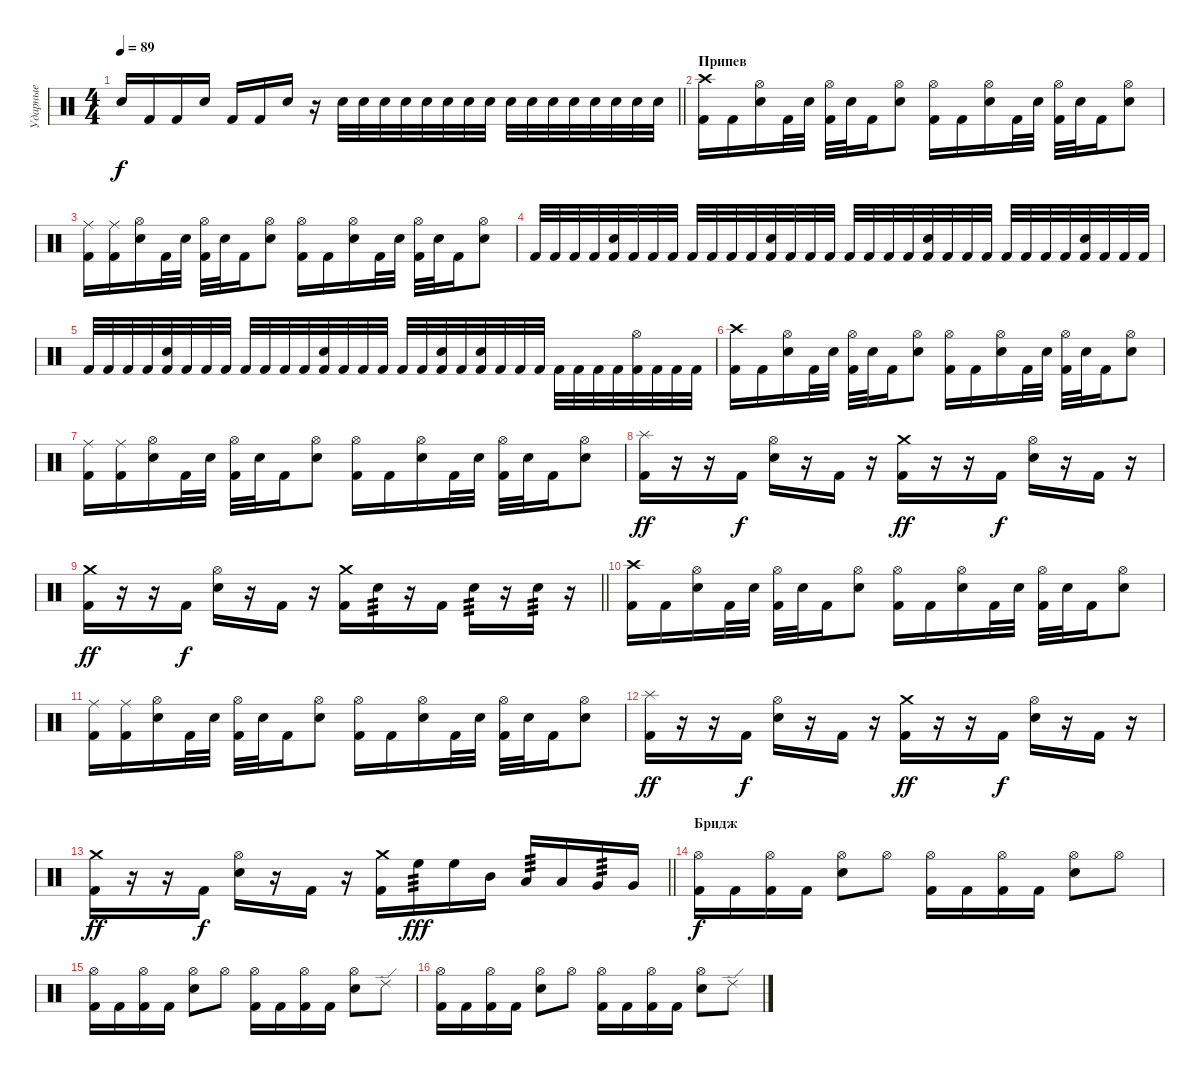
\track ("Ударные" "Ударные") {instrument percussion}
\staff {score}
\articulation defaults
\ts (4 4)
\tempo 89
\clef neutral
\barLineRight lightlight
\ks c "Electric Snare (hit)".16{dy f} "Kick (hit) 2".16 "Kick (hit) 2".16 "Electric Snare (hit)".16 "Kick (hit) 2".16 "Kick (hit) 2".16 "Electric Snare (hit)".16
r.16{volume 0} "Electric Snare (hit)".32{volume 16} "Electric Snare (hit)".32 "Electric Snare (hit)".32 "Electric Snare (hit)".32 "Electric Snare (hit)".32 "Electric Snare (hit)".32 "Electric Snare (hit)".32 "Electric Snare (hit)".32 "Electric Snare (hit)".32 "Electric Snare (hit)".32 "Electric Snare (hit)".32 "Electric Snare (hit)".32 "Electric Snare (hit)".32 "Electric Snare (hit)".32 "Electric Snare (hit)".32 "Electric Snare (hit)".32 |
\section ("" "Припев")
("Kick (hit) 2" "Crash high (hit)").16 "Kick (hit) 2".16 ("Electric Snare (hit)" "Hi-Hat (open)").16 "Kick (hit) 2".32 "Electric Snare (hit)".32 ("Kick (hit) 2" "Hi-Hat (open)").32 "Electric Snare (hit)".32 "Kick (hit) 2".16 ("Electric Snare (hit)" "Hi-Hat (open)").8 ("Kick (hit) 2" "Hi-Hat (open)").16 "Kick (hit) 2".16 ("Electric Snare (hit)" "Hi-Hat (open)").16 "Kick (hit) 2".32 "Electric Snare (hit)".32 ("Kick (hit) 2" "Hi-Hat (open)").32 "Electric Snare (hit)".32 "Kick (hit) 2".16 ("Electric Snare (hit)" "Hi-Hat (open)").8 |
("Kick (hit) 2" "Ride (middle)").16 ("Kick (hit) 2" "Ride (middle)").16 ("Electric Snare (hit)" "Hi-Hat (open)").16 "Kick (hit) 2".32 "Electric Snare (hit)".32 ("Kick (hit) 2" "Hi-Hat (open)").32 "Electric Snare (hit)".32 "Kick (hit) 2".16 ("Electric Snare (hit)" "Hi-Hat (open)").8 ("Kick (hit) 2" "Hi-Hat (open)").16 "Kick (hit) 2".16 ("Electric Snare (hit)" "Hi-Hat (open)").16 "Kick (hit) 2".32 "Electric Snare (hit)".32 ("Kick (hit) 2" "Hi-Hat (open)").32 "Electric Snare (hit)".32 "Kick (hit) 2".16 ("Electric Snare (hit)" "Hi-Hat (open)").8 |
"Kick (hit) 2".32 "Kick (hit) 2".32 "Kick (hit) 2".32 "Kick (hit) 2".32 ("Kick (hit) 2" "Electric Snare (hit)").32 "Kick (hit) 2".32 "Kick (hit) 2".32 "Kick (hit) 2".32 "Kick (hit) 2".32 "Kick (hit) 2".32 "Kick (hit) 2".32 "Kick (hit) 2".32 ("Kick (hit) 2" "Electric Snare (hit)").32 "Kick (hit) 2".32 "Kick (hit) 2".32 "Kick (hit) 2".32 "Kick (hit) 2".32 "Kick (hit) 2".32 "Kick (hit) 2".32 "Kick (hit) 2".32 ("Kick (hit) 2" "Electric Snare (hit)").32 "Kick (hit) 2".32 "Kick (hit) 2".32 "Kick (hit) 2".32 "Kick (hit) 2".32 "Kick (hit) 2".32 "Kick (hit) 2".32 "Kick (hit) 2".32 ("Kick (hit) 2" "Electric Snare (hit)").32 "Kick (hit) 2".32 "Kick (hit) 2".32 "Kick (hit) 2".32 |
"Kick (hit) 2".32 "Kick (hit) 2".32 "Kick (hit) 2".32 "Kick (hit) 2".32 ("Kick (hit) 2" "Electric Snare (hit)").32 "Kick (hit) 2".32 "Kick (hit) 2".32 "Kick (hit) 2".32 "Kick (hit) 2".32 "Kick (hit) 2".32 "Kick (hit) 2".32 "Kick (hit) 2".32 ("Kick (hit) 2" "Electric Snare (hit)").32 "Kick (hit) 2".32 "Kick (hit) 2".32 "Kick (hit) 2".32 "Kick (hit) 2".32 "Kick (hit) 2".32 ("Kick (hit) 2" "Electric Snare (hit)").32 "Kick (hit) 2".32 ("Kick (hit) 2" "Electric Snare (hit)").32 "Kick (hit) 2".32 "Kick (hit) 2".32 "Kick (hit) 2".32 "Kick (hit) 2".32 "Kick (hit) 2".32 "Kick (hit) 2".32 "Kick (hit) 2".32 ("Kick (hit) 2" "Hi-Hat (open)").32 "Kick (hit) 2".32 "Kick (hit) 2".32 "Kick (hit) 2".32 |
("Kick (hit) 2" "Crash high (hit)").16 "Kick (hit) 2".16 ("Electric Snare (hit)" "Hi-Hat (open)").16 "Kick (hit) 2".32 "Electric Snare (hit)".32 ("Kick (hit) 2" "Hi-Hat (open)").32 "Electric Snare (hit)".32 "Kick (hit) 2".16 ("Electric Snare (hit)" "Hi-Hat (open)").8 ("Kick (hit) 2" "Hi-Hat (open)").16 "Kick (hit) 2".16 ("Electric Snare (hit)" "Hi-Hat (open)").16 "Kick (hit) 2".32 "Electric Snare (hit)".32 ("Kick (hit) 2" "Hi-Hat (open)").32 "Electric Snare (hit)".32 "Kick (hit) 2".16 ("Electric Snare (hit)" "Hi-Hat (open)").8 |
("Kick (hit) 2" "Ride (middle)").16 ("Kick (hit) 2" "Ride (middle)").16 ("Electric Snare (hit)" "Hi-Hat (open)").16 "Kick (hit) 2".32 "Electric Snare (hit)".32 ("Kick (hit) 2" "Hi-Hat (open)").32 "Electric Snare (hit)".32 "Kick (hit) 2".16 ("Electric Snare (hit)" "Hi-Hat (open)").8 ("Kick (hit) 2" "Hi-Hat (open)").16 "Kick (hit) 2".16 ("Electric Snare (hit)" "Hi-Hat (open)").16 "Kick (hit) 2".32 "Electric Snare (hit)".32 ("Kick (hit) 2" "Hi-Hat (open)").32 "Electric Snare (hit)".32 "Kick (hit) 2".16 ("Electric Snare (hit)" "Hi-Hat (open)").8 |
("Kick (hit) 2" "Splash (hit)").16{dy ff} r.16 r.16 "Kick (hit) 2".16{dy f} ("Electric Snare (hit)" "Hi-Hat (open)").16 r.16 "Kick (hit) 2".16 r.16 ("Kick (hit) 2" "Crash medium (hit)").16{dy ff} r.16 r.16 "Kick (hit) 2".16{dy f} ("Electric Snare (hit)" "Hi-Hat (open)").16 r.16 "Kick (hit) 2".16 r.16 |
\barLineRight lightlight
("Kick (hit) 2" "Crash medium (hit)").16{dy ff} r.16 r.16 "Kick (hit) 2".16{dy f} ("Electric Snare (hit)" "Hi-Hat (open)").16 r.16 "Kick (hit) 2".16 r.16 ("Kick (hit) 2" "Crash medium (hit)").16 "Electric Snare (hit)".16{tp 3} r.16 "Kick (hit) 2".16 "Electric Snare (hit)".16{tp 3} r.16 "Electric Snare (hit)".16{tp 3} r.16 |
("Kick (hit) 2" "Crash high (hit)").16 "Kick (hit) 2".16 ("Electric Snare (hit)" "Hi-Hat (open)").16 "Kick (hit) 2".32 "Electric Snare (hit)".32 ("Kick (hit) 2" "Hi-Hat (open)").32 "Electric Snare (hit)".32 "Kick (hit) 2".16 ("Electric Snare (hit)" "Hi-Hat (open)").8 ("Kick (hit) 2" "Hi-Hat (open)").16 "Kick (hit) 2".16 ("Electric Snare (hit)" "Hi-Hat (open)").16 "Kick (hit) 2".32 "Electric Snare (hit)".32 ("Kick (hit) 2" "Hi-Hat (open)").32 "Electric Snare (hit)".32 "Kick (hit) 2".16 ("Electric Snare (hit)" "Hi-Hat (open)").8 |
("Kick (hit) 2" "Ride (middle)").16 ("Kick (hit) 2" "Ride (middle)").16 ("Electric Snare (hit)" "Hi-Hat (open)").16 "Kick (hit) 2".32 "Electric Snare (hit)".32 ("Kick (hit) 2" "Hi-Hat (open)").32 "Electric Snare (hit)".32 "Kick (hit) 2".16 ("Electric Snare (hit)" "Hi-Hat (open)").8 ("Kick (hit) 2" "Hi-Hat (open)").16 "Kick (hit) 2".16 ("Electric Snare (hit)" "Hi-Hat (open)").16 "Kick (hit) 2".32 "Electric Snare (hit)".32 ("Kick (hit) 2" "Hi-Hat (open)").32 "Electric Snare (hit)".32 "Kick (hit) 2".16 ("Electric Snare (hit)" "Hi-Hat (open)").8 |
("Kick (hit) 2" "Splash (hit)").16{dy ff} r.16 r.16 "Kick (hit) 2".16{dy f} ("Electric Snare (hit)" "Hi-Hat (open)").16 r.16 "Kick (hit) 2".16 r.16 ("Kick (hit) 2" "Crash medium (hit)").16{dy ff} r.16 r.16 "Kick (hit) 2".16{dy f} ("Electric Snare (hit)" "Hi-Hat (open)").16 r.16 "Kick (hit) 2".16 r.16 |
\barLineRight lightlight
("Kick (hit) 2" "Crash medium (hit)").16{dy ff} r.16 r.16 "Kick (hit) 2".16{dy f} ("Electric Snare (hit)" "Hi-Hat (open)").16 r.16 "Kick (hit) 2".16 r.16 ("Kick (hit) 2" "Crash medium (hit)").16 "High Floor Tom (hit)".16{tp 3 dy fff} "High Floor Tom (hit)".16 "Mid Tom (hit)".16 "Low Tom (hit)".16{tp 3} "Low Tom (hit)".16 "Very Low Tom (hit)".16{tp 3} "Very Low Tom (hit)".16 |
\section ("" "Бридж")
("Kick (hit) 2" "Hi-Hat (open)").16{dy f} "Kick (hit) 2".16 ("Kick (hit) 2" "Hi-Hat (open)").16 "Kick (hit) 2".16 ("Electric Snare (hit)" "Hi-Hat (open)").8 "Hi-Hat (open)".8 ("Kick (hit) 2" "Hi-Hat (open)").16 "Kick (hit) 2".16 ("Kick (hit) 2" "Hi-Hat (open)").16 "Kick (hit) 2".16 ("Electric Snare (hit)" "Hi-Hat (open)").8 "Hi-Hat (open)".8 |
("Kick (hit) 2" "Hi-Hat (open)").16 "Kick (hit) 2".16 ("Kick (hit) 2" "Hi-Hat (open)").16 "Kick (hit) 2".16 ("Electric Snare (hit)" "Hi-Hat (open)").8 "Hi-Hat (open)".8 ("Kick (hit) 2" "Hi-Hat (open)").16 "Kick (hit) 2".16 ("Kick (hit) 2" "Hi-Hat (open)").16 "Kick (hit) 2".16 ("Electric Snare (hit)" "Hi-Hat (open)").8 "Ride (edge) 2".8 |
("Kick (hit) 2" "Hi-Hat (open)").16 "Kick (hit) 2".16 ("Kick (hit) 2" "Hi-Hat (open)").16 "Kick (hit) 2".16 ("Electric Snare (hit)" "Hi-Hat (open)").8 "Hi-Hat (open)".8 ("Kick (hit) 2" "Hi-Hat (open)").16 "Kick (hit) 2".16 ("Kick (hit) 2" "Hi-Hat (open)").16 "Kick (hit) 2".16 ("Electric Snare (hit)" "Hi-Hat (open)").8 "Ride (edge) 2".8
